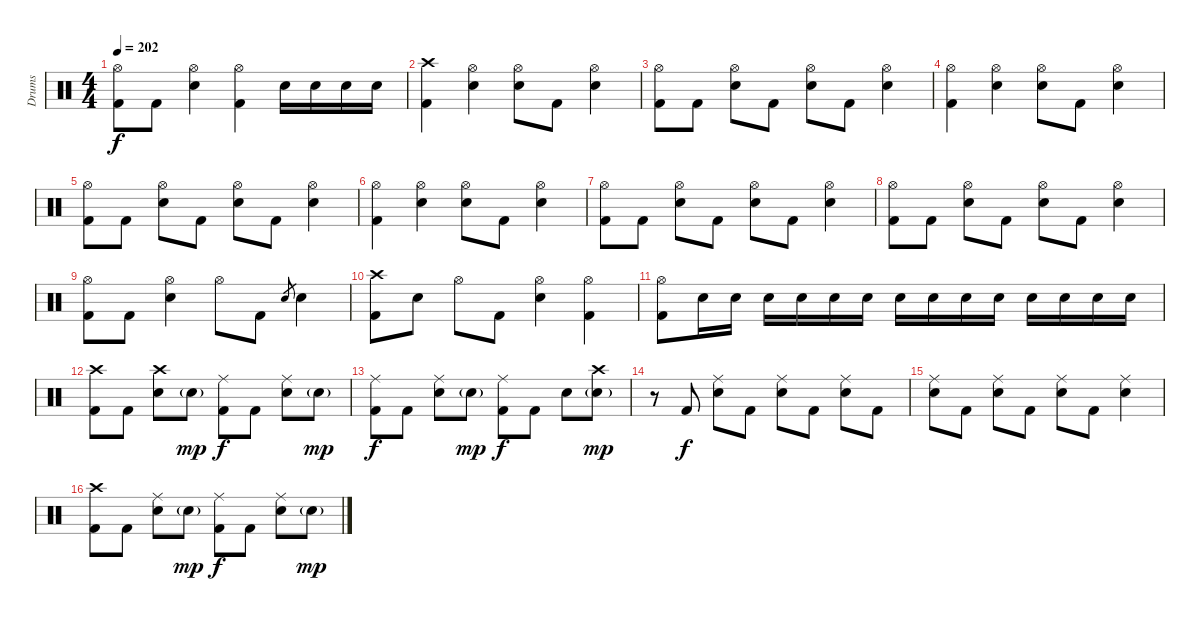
\track ("Drums" "Drums") {instrument percussion}
\staff {score}
\articulation defaults
\ts (4 4)
\tempo 202
\clef neutral
\ks c
("Hi-Hat (open)" "Kick (hit) 2").8{dy f} "Kick (hit) 2".8 ("Hi-Hat (open)" "Electric Snare (hit)").4 ("Hi-Hat (open)" "Kick (hit) 2").4 "Electric Snare (hit)".16 "Electric Snare (hit)".16 "Electric Snare (hit)".16 "Electric Snare (hit)".16 |
("Crash high (hit)" "Kick (hit) 2").4 ("Hi-Hat (open)" "Electric Snare (hit)").4 ("Hi-Hat (open)" "Electric Snare (hit)").8 "Kick (hit) 2".8 ("Hi-Hat (open)" "Electric Snare (hit)").4 |
("Hi-Hat (open)" "Kick (hit) 2").8 "Kick (hit) 2".8 ("Hi-Hat (open)" "Electric Snare (hit)").8 "Kick (hit) 2".8 ("Hi-Hat (open)" "Electric Snare (hit)").8 "Kick (hit) 2".8 ("Hi-Hat (open)" "Electric Snare (hit)").4 |
("Hi-Hat (open)" "Kick (hit) 2").4 ("Hi-Hat (open)" "Electric Snare (hit)").4 ("Hi-Hat (open)" "Electric Snare (hit)").8 "Kick (hit) 2".8 ("Hi-Hat (open)" "Electric Snare (hit)").4 |
("Hi-Hat (open)" "Kick (hit) 2").8 "Kick (hit) 2".8 ("Hi-Hat (open)" "Electric Snare (hit)").8 "Kick (hit) 2".8 ("Hi-Hat (open)" "Electric Snare (hit)").8 "Kick (hit) 2".8 ("Hi-Hat (open)" "Electric Snare (hit)").4 |
("Hi-Hat (open)" "Kick (hit) 2").4 ("Hi-Hat (open)" "Electric Snare (hit)").4 ("Hi-Hat (open)" "Electric Snare (hit)").8 "Kick (hit) 2".8 ("Hi-Hat (open)" "Electric Snare (hit)").4 |
("Hi-Hat (open)" "Kick (hit) 2").8 "Kick (hit) 2".8 ("Hi-Hat (open)" "Electric Snare (hit)").8 "Kick (hit) 2".8 ("Hi-Hat (open)" "Electric Snare (hit)").8 "Kick (hit) 2".8 ("Hi-Hat (open)" "Electric Snare (hit)").4 |
("Hi-Hat (open)" "Kick (hit) 2").8 "Kick (hit) 2".8 ("Hi-Hat (open)" "Electric Snare (hit)").8 "Kick (hit) 2".8 ("Hi-Hat (open)" "Electric Snare (hit)").8 "Kick (hit) 2".8 ("Hi-Hat (open)" "Electric Snare (hit)").4 |
("Hi-Hat (open)" "Kick (hit) 2").8 "Kick (hit) 2".8 ("Hi-Hat (open)" "Electric Snare (hit)").4 "Hi-Hat (open)".8 "Kick (hit) 2".8 "Electric Snare (hit)".8{gr} "Electric Snare (hit)".4 |
("Crash high (hit)" "Kick (hit) 2").8 "Electric Snare (hit)".8 "Hi-Hat (open)".8 "Kick (hit) 2".8 ("Hi-Hat (open)" "Electric Snare (hit)").4 ("Hi-Hat (open)" "Kick (hit) 2").4 |
("Hi-Hat (open)" "Kick (hit) 2").8 "Electric Snare (hit)".16 "Electric Snare (hit)".16 "Electric Snare (hit)".16 "Electric Snare (hit)".16 "Electric Snare (hit)".16 "Electric Snare (hit)".16 "Electric Snare (hit)".16 "Electric Snare (hit)".16 "Electric Snare (hit)".16 "Electric Snare (hit)".16 "Electric Snare (hit)".16 "Electric Snare (hit)".16 "Electric Snare (hit)".16 "Electric Snare (hit)".16 |
("Crash high (hit)" "Kick (hit) 2").8 "Kick (hit) 2".8 ("Crash high (hit)" "Electric Snare (hit)").8 "Electric Snare (hit)"{g}.8{dy mp} ("Ride (middle)" "Kick (hit) 2").8{dy f} "Kick (hit) 2".8 ("Ride (middle)" "Electric Snare (hit)").8 "Electric Snare (hit)"{g}.8{dy mp} |
("Ride (middle)" "Kick (hit) 2").8{dy f} "Kick (hit) 2".8 ("Ride (middle)" "Electric Snare (hit)").8 "Electric Snare (hit)"{g}.8{dy mp} ("Ride (middle)" "Kick (hit) 2").8{dy f} "Kick (hit) 2".8 "Electric Snare (hit)".8 ("Crash high (hit)" "Electric Snare (hit)"{g}).8{dy mp} |
r.8 "Kick (hit) 2".8{dy f} ("Ride (middle)" "Electric Snare (hit)").8 "Kick (hit) 2".8 ("Ride (middle)" "Electric Snare (hit)").8 "Kick (hit) 2".8 ("Ride (middle)" "Electric Snare (hit)").8 "Kick (hit) 2".8 |
("Ride (middle)" "Electric Snare (hit)").8 "Kick (hit) 2".8 ("Ride (middle)" "Electric Snare (hit)").8 "Kick (hit) 2".8 ("Ride (middle)" "Electric Snare (hit)").8 "Kick (hit) 2".8 ("Ride (middle)" "Electric Snare (hit)").4 |
("Crash high (hit)" "Kick (hit) 2").8 "Kick (hit) 2".8 ("Ride (middle)" "Electric Snare (hit)").8 "Electric Snare (hit)"{g}.8{dy mp} ("Ride (middle)" "Kick (hit) 2").8{dy f} "Kick (hit) 2".8 ("Ride (middle)" "Electric Snare (hit)").8 "Electric Snare (hit)"{g}.8{dy mp}
